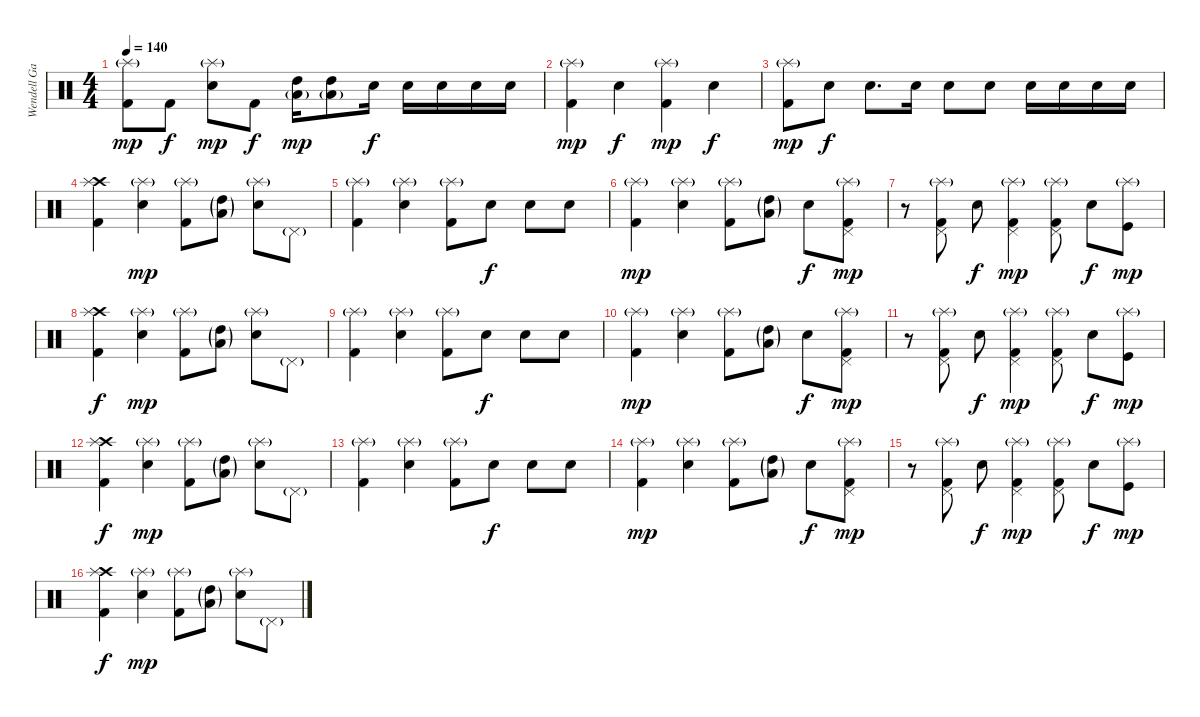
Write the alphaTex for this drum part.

\track ("Wendell Garcia(Drums)" "Wendell Ga") {instrument percussion}
\staff {score}
\articulation defaults
\ts (4 4)
\tempo 140
\clef neutral
\ks c
("Splash (hit)"{g} "Kick (hit) 2").8{dy mp} "Kick (hit) 2".8{dy f} ("Splash (hit)"{g} "Electric Snare (hit)").8{dy mp} "Kick (hit) 2".8{dy f} ("High Tom (hit)" "Low Tom (hit)"{g}).16{dy mp} ("High Tom (hit)" "Low Tom (hit)"{g}).8 "Electric Snare (hit)".16{dy f} "Electric Snare (hit)".16 "Electric Snare (hit)".16 "Electric Snare (hit)".16 "Electric Snare (hit)".16 |
("Splash (hit)"{g} "Kick (hit) 2").4{dy mp} "Electric Snare (hit)".4{dy f} ("Splash (hit)"{g} "Kick (hit) 2").4{dy mp} "Electric Snare (hit)".4{dy f} |
("Splash (hit)"{g} "Kick (hit) 2").8{dy mp} "Electric Snare (hit)".8{dy f} "Electric Snare (hit)".8{d} "Electric Snare (hit)".16 "Electric Snare (hit)".8 "Electric Snare (hit)".8 "Electric Snare (hit)".16 "Electric Snare (hit)".16 "Electric Snare (hit)".16 "Electric Snare (hit)".16 |
("Crash high (hit)" "Splash (hit)" "Kick (hit) 2").4 ("Splash (hit)"{g} "Electric Snare (hit)").4{dy mp} ("Splash (hit)"{g} "Kick (hit) 2").8 ("High Tom (hit)"{g} "Low Tom (hit)"{g}).8 ("Splash (hit)"{g} "Electric Snare (hit)").8 "Pedal Hi-Hat (hit)"{g}.8 |
("Splash (hit)"{g} "Kick (hit) 2").4 ("Splash (hit)"{g} "Electric Snare (hit)").4 ("Splash (hit)"{g} "Kick (hit) 2").8 "Electric Snare (hit)".8{dy f} "Electric Snare (hit)".8 "Electric Snare (hit)".8 |
("Splash (hit)"{g} "Kick (hit) 2").4{dy mp} ("Splash (hit)"{g} "Electric Snare (hit)").4 ("Splash (hit)"{g} "Kick (hit) 2").8 ("High Tom (hit)"{g} "Low Tom (hit)"{g}).8 "Electric Snare (hit)".8{dy f} ("Splash (hit)"{g} "Pedal Hi-Hat (hit)" "Kick (hit) 2").8{dy mp} |
r.8 ("Splash (hit)"{g} "Pedal Hi-Hat (hit)" "Kick (hit) 2").8 "Electric Snare (hit)".8{dy f} ("Splash (hit)"{g} "Pedal Hi-Hat (hit)" "Kick (hit) 2").4{dy mp} ("Splash (hit)"{g} "Pedal Hi-Hat (hit)" "Kick (hit) 2").8 "Electric Snare (hit)".8{dy f} ("Splash (hit)"{g} "Kick (hit)").8{dy mp} |
("Crash high (hit)" "Splash (hit)" "Kick (hit) 2").4{dy f} ("Splash (hit)"{g} "Electric Snare (hit)").4{dy mp} ("Splash (hit)"{g} "Kick (hit) 2").8 ("High Tom (hit)"{g} "Low Tom (hit)"{g}).8 ("Splash (hit)"{g} "Electric Snare (hit)").8 "Pedal Hi-Hat (hit)"{g}.8 |
("Splash (hit)"{g} "Kick (hit) 2").4 ("Splash (hit)"{g} "Electric Snare (hit)").4 ("Splash (hit)"{g} "Kick (hit) 2").8 "Electric Snare (hit)".8{dy f} "Electric Snare (hit)".8 "Electric Snare (hit)".8 |
("Splash (hit)"{g} "Kick (hit) 2").4{dy mp} ("Splash (hit)"{g} "Electric Snare (hit)").4 ("Splash (hit)"{g} "Kick (hit) 2").8 ("High Tom (hit)"{g} "Low Tom (hit)"{g}).8 "Electric Snare (hit)".8{dy f} ("Splash (hit)"{g} "Pedal Hi-Hat (hit)" "Kick (hit) 2").8{dy mp} |
r.8 ("Splash (hit)"{g} "Pedal Hi-Hat (hit)" "Kick (hit) 2").8 "Electric Snare (hit)".8{dy f} ("Splash (hit)"{g} "Pedal Hi-Hat (hit)" "Kick (hit) 2").4{dy mp} ("Splash (hit)"{g} "Pedal Hi-Hat (hit)" "Kick (hit) 2").8 "Electric Snare (hit)".8{dy f} ("Splash (hit)"{g} "Kick (hit)").8{dy mp} |
("Crash high (hit)" "Splash (hit)" "Kick (hit) 2").4{dy f} ("Splash (hit)"{g} "Electric Snare (hit)").4{dy mp} ("Splash (hit)"{g} "Kick (hit) 2").8 ("High Tom (hit)"{g} "Low Tom (hit)"{g}).8 ("Splash (hit)"{g} "Electric Snare (hit)").8 "Pedal Hi-Hat (hit)"{g}.8 |
("Splash (hit)"{g} "Kick (hit) 2").4 ("Splash (hit)"{g} "Electric Snare (hit)").4 ("Splash (hit)"{g} "Kick (hit) 2").8 "Electric Snare (hit)".8{dy f} "Electric Snare (hit)".8 "Electric Snare (hit)".8 |
("Splash (hit)"{g} "Kick (hit) 2").4{dy mp} ("Splash (hit)"{g} "Electric Snare (hit)").4 ("Splash (hit)"{g} "Kick (hit) 2").8 ("High Tom (hit)"{g} "Low Tom (hit)"{g}).8 "Electric Snare (hit)".8{dy f} ("Splash (hit)"{g} "Pedal Hi-Hat (hit)" "Kick (hit) 2").8{dy mp} |
r.8 ("Splash (hit)"{g} "Pedal Hi-Hat (hit)" "Kick (hit) 2").8 "Electric Snare (hit)".8{dy f} ("Splash (hit)"{g} "Pedal Hi-Hat (hit)" "Kick (hit) 2").4{dy mp} ("Splash (hit)"{g} "Pedal Hi-Hat (hit)" "Kick (hit) 2").8 "Electric Snare (hit)".8{dy f} ("Splash (hit)"{g} "Kick (hit)").8{dy mp} |
("Crash high (hit)" "Splash (hit)" "Kick (hit) 2").4{dy f} ("Splash (hit)"{g} "Electric Snare (hit)").4{dy mp} ("Splash (hit)"{g} "Kick (hit) 2").8 ("High Tom (hit)"{g} "Low Tom (hit)"{g}).8 ("Splash (hit)"{g} "Electric Snare (hit)").8 "Pedal Hi-Hat (hit)"{g}.8
